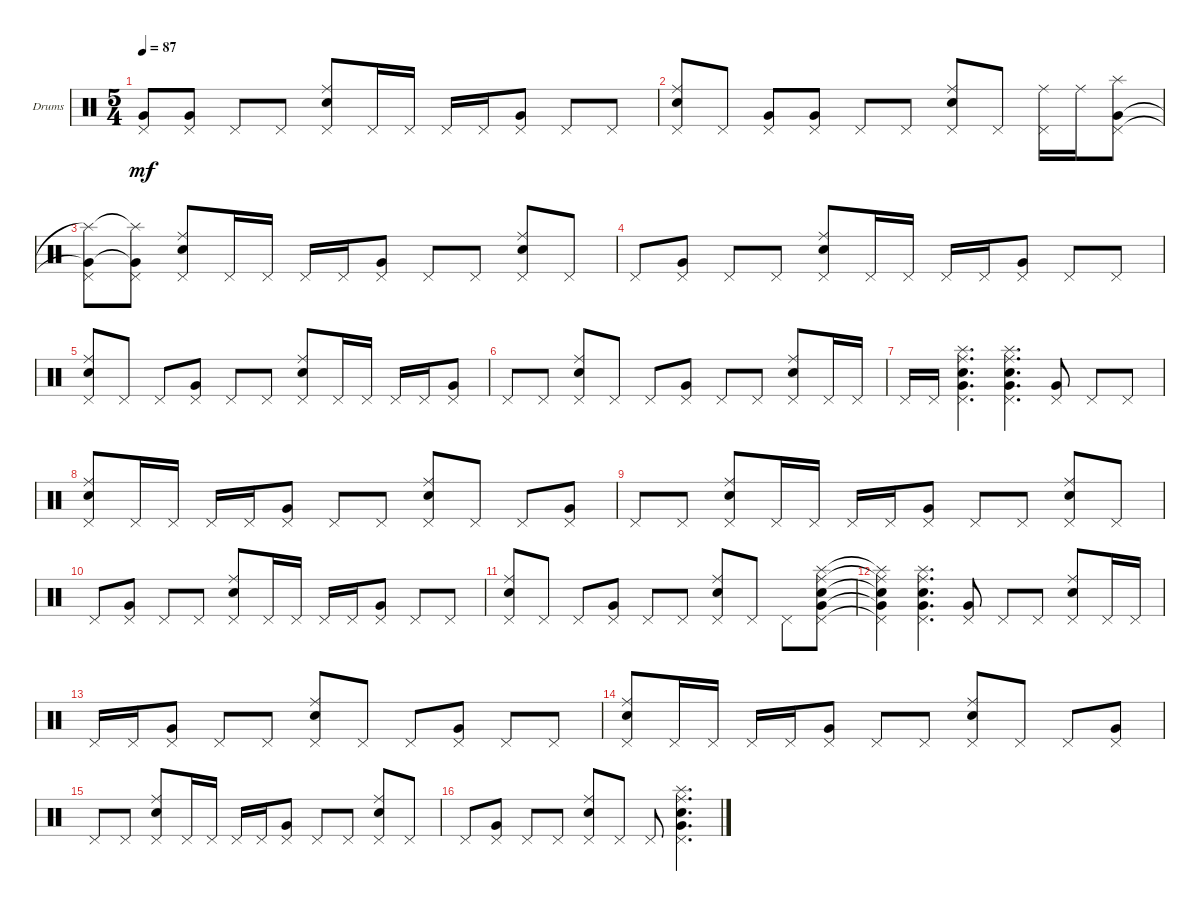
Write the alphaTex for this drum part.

\defaultSystemsLayout 4
\bracketExtendMode groupsimilarinstruments
\firstSystemTrackNameOrientation horizontal
\otherSystemsTrackNameOrientation horizontal
\track ("Drumkit" "Drums") {instrument percussion}
\staff {score}
\articulation defaults
\ts (5 4)
\tempo 87
\clef neutral
\ks c
("Pedal Hi-Hat (hit)" "Very Low Tom (hit)").8{dy mf} ("Pedal Hi-Hat (hit)" "Very Low Tom (hit)").8 "Pedal Hi-Hat (hit)".8 "Pedal Hi-Hat (hit)".8 ("Pedal Hi-Hat (hit)" "Snare (hit) 2" "Ride (middle)").8 "Pedal Hi-Hat (hit)".16 "Pedal Hi-Hat (hit)".16 "Pedal Hi-Hat (hit)".16 "Pedal Hi-Hat (hit)".16 ("Pedal Hi-Hat (hit)" "Very Low Tom (hit)").8 "Pedal Hi-Hat (hit)".8 "Pedal Hi-Hat (hit)".8 |
("Pedal Hi-Hat (hit)" "Snare (hit) 2" "Ride (middle)").8 "Pedal Hi-Hat (hit)".8 ("Pedal Hi-Hat (hit)" "Very Low Tom (hit)").8 ("Pedal Hi-Hat (hit)" "Very Low Tom (hit)").8 "Pedal Hi-Hat (hit)".8 "Pedal Hi-Hat (hit)".8 ("Pedal Hi-Hat (hit)" "Snare (hit) 2" "Ride (middle)").8 "Pedal Hi-Hat (hit)".8 ("Ride (middle)" "Pedal Hi-Hat (hit)").16 "Ride (middle)".16 ("Splash (hit)" "Very Low Tom (hit)" "Pedal Hi-Hat (hit)").8 |
("Pedal Hi-Hat (hit)" "Splash (hit)"{t} "Very Low Tom (hit)"{t}).8 ("Pedal Hi-Hat (hit)" "Splash (hit)"{t} "Very Low Tom (hit)"{t}).8 ("Pedal Hi-Hat (hit)" "Snare (hit) 2" "Ride (middle)").8 "Pedal Hi-Hat (hit)".16 "Pedal Hi-Hat (hit)".16 "Pedal Hi-Hat (hit)".16 "Pedal Hi-Hat (hit)".16 ("Pedal Hi-Hat (hit)" "Very Low Tom (hit)").8 "Pedal Hi-Hat (hit)".8 "Pedal Hi-Hat (hit)".8 ("Pedal Hi-Hat (hit)" "Snare (hit) 2" "Ride (middle)").8 "Pedal Hi-Hat (hit)".8 |
"Pedal Hi-Hat (hit)".8 ("Pedal Hi-Hat (hit)" "Very Low Tom (hit)").8 "Pedal Hi-Hat (hit)".8 "Pedal Hi-Hat (hit)".8 ("Pedal Hi-Hat (hit)" "Snare (hit) 2" "Ride (middle)").8 "Pedal Hi-Hat (hit)".16 "Pedal Hi-Hat (hit)".16 "Pedal Hi-Hat (hit)".16 "Pedal Hi-Hat (hit)".16 ("Pedal Hi-Hat (hit)" "Very Low Tom (hit)").8 "Pedal Hi-Hat (hit)".8 "Pedal Hi-Hat (hit)".8 |
("Pedal Hi-Hat (hit)" "Snare (hit) 2" "Ride (middle)").8 "Pedal Hi-Hat (hit)".8 "Pedal Hi-Hat (hit)".8 ("Pedal Hi-Hat (hit)" "Very Low Tom (hit)").8 "Pedal Hi-Hat (hit)".8 "Pedal Hi-Hat (hit)".8 ("Pedal Hi-Hat (hit)" "Snare (hit) 2" "Ride (middle)").8 "Pedal Hi-Hat (hit)".16 "Pedal Hi-Hat (hit)".16 "Pedal Hi-Hat (hit)".16 "Pedal Hi-Hat (hit)".16 ("Pedal Hi-Hat (hit)" "Very Low Tom (hit)").8 |
"Pedal Hi-Hat (hit)".8 "Pedal Hi-Hat (hit)".8 ("Pedal Hi-Hat (hit)" "Snare (hit) 2" "Ride (middle)").8 "Pedal Hi-Hat (hit)".8 "Pedal Hi-Hat (hit)".8 ("Pedal Hi-Hat (hit)" "Very Low Tom (hit)").8 "Pedal Hi-Hat (hit)".8 "Pedal Hi-Hat (hit)".8 ("Pedal Hi-Hat (hit)" "Snare (hit) 2" "Ride (middle)").8 "Pedal Hi-Hat (hit)".16 "Pedal Hi-Hat (hit)".16 |
"Pedal Hi-Hat (hit)".16 "Pedal Hi-Hat (hit)".16 ("Pedal Hi-Hat (hit)" "Very Low Tom (hit)" "Splash (hit)" "Ride (middle)" "Snare (hit) 2").4{d} ("Pedal Hi-Hat (hit)" "Very Low Tom (hit)" "Splash (hit)" "Ride (middle)" "Snare (hit) 2").4{d} ("Pedal Hi-Hat (hit)" "Very Low Tom (hit)").8 "Pedal Hi-Hat (hit)".8 "Pedal Hi-Hat (hit)".8 |
("Pedal Hi-Hat (hit)" "Snare (hit) 2" "Ride (middle)").8 "Pedal Hi-Hat (hit)".16 "Pedal Hi-Hat (hit)".16 "Pedal Hi-Hat (hit)".16 "Pedal Hi-Hat (hit)".16 ("Pedal Hi-Hat (hit)" "Very Low Tom (hit)").8 "Pedal Hi-Hat (hit)".8 "Pedal Hi-Hat (hit)".8 ("Pedal Hi-Hat (hit)" "Snare (hit) 2" "Ride (middle)").8 "Pedal Hi-Hat (hit)".8 "Pedal Hi-Hat (hit)".8 ("Pedal Hi-Hat (hit)" "Very Low Tom (hit)").8 |
"Pedal Hi-Hat (hit)".8 "Pedal Hi-Hat (hit)".8 ("Pedal Hi-Hat (hit)" "Snare (hit) 2" "Ride (middle)").8 "Pedal Hi-Hat (hit)".16 "Pedal Hi-Hat (hit)".16 "Pedal Hi-Hat (hit)".16 "Pedal Hi-Hat (hit)".16 ("Pedal Hi-Hat (hit)" "Very Low Tom (hit)").8 "Pedal Hi-Hat (hit)".8 "Pedal Hi-Hat (hit)".8 ("Pedal Hi-Hat (hit)" "Snare (hit) 2" "Ride (middle)").8 "Pedal Hi-Hat (hit)".8 |
"Pedal Hi-Hat (hit)".8 ("Pedal Hi-Hat (hit)" "Very Low Tom (hit)").8 "Pedal Hi-Hat (hit)".8 "Pedal Hi-Hat (hit)".8 ("Pedal Hi-Hat (hit)" "Snare (hit) 2" "Ride (middle)").8 "Pedal Hi-Hat (hit)".16 "Pedal Hi-Hat (hit)".16 "Pedal Hi-Hat (hit)".16 "Pedal Hi-Hat (hit)".16 ("Pedal Hi-Hat (hit)" "Very Low Tom (hit)").8 "Pedal Hi-Hat (hit)".8 "Pedal Hi-Hat (hit)".8 |
("Pedal Hi-Hat (hit)" "Snare (hit) 2" "Ride (middle)").8 "Pedal Hi-Hat (hit)".8 "Pedal Hi-Hat (hit)".8 ("Pedal Hi-Hat (hit)" "Very Low Tom (hit)").8 "Pedal Hi-Hat (hit)".8 "Pedal Hi-Hat (hit)".8 ("Pedal Hi-Hat (hit)" "Snare (hit) 2" "Ride (middle)").8 "Pedal Hi-Hat (hit)".8 "Pedal Hi-Hat (hit)".8 ("Pedal Hi-Hat (hit)" "Very Low Tom (hit)" "Splash (hit)" "Ride (middle)" "Snare (hit) 2").8 |
("Pedal Hi-Hat (hit)"{t} "Very Low Tom (hit)"{t} "Splash (hit)"{t} "Ride (middle)"{t} "Snare (hit) 2"{t}).4 ("Pedal Hi-Hat (hit)" "Very Low Tom (hit)" "Splash (hit)" "Ride (middle)" "Snare (hit) 2").4{d} ("Pedal Hi-Hat (hit)" "Very Low Tom (hit)").8 "Pedal Hi-Hat (hit)".8 "Pedal Hi-Hat (hit)".8 ("Pedal Hi-Hat (hit)" "Snare (hit) 2" "Ride (middle)").8 "Pedal Hi-Hat (hit)".16 "Pedal Hi-Hat (hit)".16 |
"Pedal Hi-Hat (hit)".16 "Pedal Hi-Hat (hit)".16 ("Pedal Hi-Hat (hit)" "Very Low Tom (hit)").8 "Pedal Hi-Hat (hit)".8 "Pedal Hi-Hat (hit)".8 ("Pedal Hi-Hat (hit)" "Snare (hit) 2" "Ride (middle)").8 "Pedal Hi-Hat (hit)".8 "Pedal Hi-Hat (hit)".8 ("Pedal Hi-Hat (hit)" "Very Low Tom (hit)").8 "Pedal Hi-Hat (hit)".8 "Pedal Hi-Hat (hit)".8 |
("Pedal Hi-Hat (hit)" "Snare (hit) 2" "Ride (middle)").8 "Pedal Hi-Hat (hit)".16 "Pedal Hi-Hat (hit)".16 "Pedal Hi-Hat (hit)".16 "Pedal Hi-Hat (hit)".16 ("Pedal Hi-Hat (hit)" "Very Low Tom (hit)").8 "Pedal Hi-Hat (hit)".8 "Pedal Hi-Hat (hit)".8 ("Pedal Hi-Hat (hit)" "Snare (hit) 2" "Ride (middle)").8 "Pedal Hi-Hat (hit)".8 "Pedal Hi-Hat (hit)".8 ("Pedal Hi-Hat (hit)" "Very Low Tom (hit)").8 |
"Pedal Hi-Hat (hit)".8 "Pedal Hi-Hat (hit)".8 ("Pedal Hi-Hat (hit)" "Snare (hit) 2" "Ride (middle)").8 "Pedal Hi-Hat (hit)".16 "Pedal Hi-Hat (hit)".16 "Pedal Hi-Hat (hit)".16 "Pedal Hi-Hat (hit)".16 ("Pedal Hi-Hat (hit)" "Very Low Tom (hit)").8 "Pedal Hi-Hat (hit)".8 "Pedal Hi-Hat (hit)".8 ("Pedal Hi-Hat (hit)" "Snare (hit) 2" "Ride (middle)").8 "Pedal Hi-Hat (hit)".8 |
"Pedal Hi-Hat (hit)".8 ("Pedal Hi-Hat (hit)" "Very Low Tom (hit)").8 "Pedal Hi-Hat (hit)".8 "Pedal Hi-Hat (hit)".8 ("Pedal Hi-Hat (hit)" "Snare (hit) 2" "Ride (middle)").8 "Pedal Hi-Hat (hit)".8 "Pedal Hi-Hat (hit)".8 ("Pedal Hi-Hat (hit)" "Very Low Tom (hit)" "Splash (hit)" "Ride (middle)" "Snare (hit) 2").4{d}
